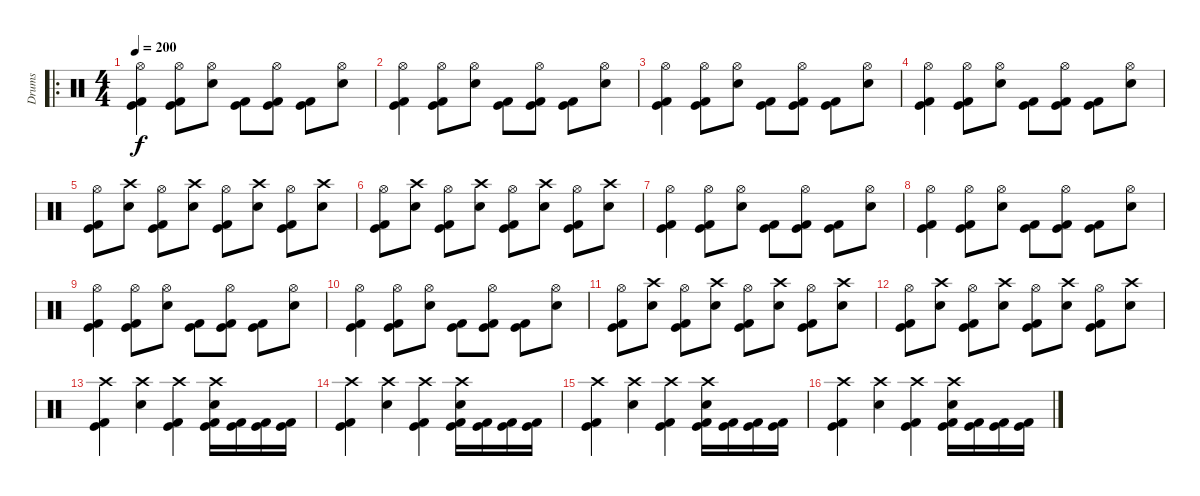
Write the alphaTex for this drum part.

\track ("Drums" "Drums") {instrument percussion}
\staff {score}
\articulation defaults
\ro
\ts (4 4)
\tempo 200
\clef neutral
\ks c
("Hi-Hat (open)" "Kick (hit) 2" "Kick (hit)").4{dy f} ("Hi-Hat (open)" "Kick (hit) 2" "Kick (hit)").8 ("Hi-Hat (open)" "Electric Snare (hit)").8 ("Kick (hit) 2" "Kick (hit)").8 ("Hi-Hat (open)" "Kick (hit) 2" "Kick (hit)").8 ("Kick (hit) 2" "Kick (hit)").8 ("Hi-Hat (open)" "Electric Snare (hit)").8 |
("Hi-Hat (open)" "Kick (hit) 2" "Kick (hit)").4 ("Hi-Hat (open)" "Kick (hit) 2" "Kick (hit)").8 ("Hi-Hat (open)" "Electric Snare (hit)").8 ("Kick (hit) 2" "Kick (hit)").8 ("Hi-Hat (open)" "Kick (hit) 2" "Kick (hit)").8 ("Kick (hit) 2" "Kick (hit)").8 ("Hi-Hat (open)" "Electric Snare (hit)").8 |
("Hi-Hat (open)" "Kick (hit) 2" "Kick (hit)").4 ("Hi-Hat (open)" "Kick (hit) 2" "Kick (hit)").8 ("Hi-Hat (open)" "Electric Snare (hit)").8 ("Kick (hit) 2" "Kick (hit)").8 ("Hi-Hat (open)" "Kick (hit) 2" "Kick (hit)").8 ("Kick (hit) 2" "Kick (hit)").8 ("Hi-Hat (open)" "Electric Snare (hit)").8 |
("Hi-Hat (open)" "Kick (hit) 2" "Kick (hit)").4 ("Hi-Hat (open)" "Kick (hit) 2" "Kick (hit)").8 ("Hi-Hat (open)" "Electric Snare (hit)").8 ("Kick (hit) 2" "Kick (hit)").8 ("Hi-Hat (open)" "Kick (hit) 2" "Kick (hit)").8 ("Kick (hit) 2" "Kick (hit)").8 ("Hi-Hat (open)" "Electric Snare (hit)").8 |
("Hi-Hat (open)" "Kick (hit)" "Kick (hit) 2").8 ("Electric Snare (hit)" "Crash high (hit)").8 ("Hi-Hat (open)" "Kick (hit)" "Kick (hit) 2").8 ("Electric Snare (hit)" "Crash high (hit)").8 ("Hi-Hat (open)" "Kick (hit)" "Kick (hit) 2").8 ("Electric Snare (hit)" "Crash high (hit)").8 ("Hi-Hat (open)" "Kick (hit)" "Kick (hit) 2").8 ("Electric Snare (hit)" "Crash high (hit)").8 |
("Hi-Hat (open)" "Kick (hit)" "Kick (hit) 2").8 ("Electric Snare (hit)" "Crash high (hit)").8 ("Hi-Hat (open)" "Kick (hit)" "Kick (hit) 2").8 ("Electric Snare (hit)" "Crash high (hit)").8 ("Hi-Hat (open)" "Kick (hit)" "Kick (hit) 2").8 ("Electric Snare (hit)" "Crash high (hit)").8 ("Hi-Hat (open)" "Kick (hit)" "Kick (hit) 2").8 ("Electric Snare (hit)" "Crash high (hit)").8 |
("Hi-Hat (open)" "Kick (hit) 2" "Kick (hit)").4 ("Hi-Hat (open)" "Kick (hit) 2" "Kick (hit)").8 ("Hi-Hat (open)" "Electric Snare (hit)").8 ("Kick (hit) 2" "Kick (hit)").8 ("Hi-Hat (open)" "Kick (hit) 2" "Kick (hit)").8 ("Kick (hit) 2" "Kick (hit)").8 ("Hi-Hat (open)" "Electric Snare (hit)").8 |
("Hi-Hat (open)" "Kick (hit) 2" "Kick (hit)").4 ("Hi-Hat (open)" "Kick (hit) 2" "Kick (hit)").8 ("Hi-Hat (open)" "Electric Snare (hit)").8 ("Kick (hit) 2" "Kick (hit)").8 ("Hi-Hat (open)" "Kick (hit) 2" "Kick (hit)").8 ("Kick (hit) 2" "Kick (hit)").8 ("Hi-Hat (open)" "Electric Snare (hit)").8 |
("Hi-Hat (open)" "Kick (hit) 2" "Kick (hit)").4 ("Hi-Hat (open)" "Kick (hit) 2" "Kick (hit)").8 ("Hi-Hat (open)" "Electric Snare (hit)").8 ("Kick (hit) 2" "Kick (hit)").8 ("Hi-Hat (open)" "Kick (hit) 2" "Kick (hit)").8 ("Kick (hit) 2" "Kick (hit)").8 ("Hi-Hat (open)" "Electric Snare (hit)").8 |
("Hi-Hat (open)" "Kick (hit) 2" "Kick (hit)").4 ("Hi-Hat (open)" "Kick (hit) 2" "Kick (hit)").8 ("Hi-Hat (open)" "Electric Snare (hit)").8 ("Kick (hit) 2" "Kick (hit)").8 ("Hi-Hat (open)" "Kick (hit) 2" "Kick (hit)").8 ("Kick (hit) 2" "Kick (hit)").8 ("Hi-Hat (open)" "Electric Snare (hit)").8 |
("Hi-Hat (open)" "Kick (hit)" "Kick (hit) 2").8 ("Electric Snare (hit)" "Crash high (hit)").8 ("Hi-Hat (open)" "Kick (hit)" "Kick (hit) 2").8 ("Electric Snare (hit)" "Crash high (hit)").8 ("Hi-Hat (open)" "Kick (hit)" "Kick (hit) 2").8 ("Electric Snare (hit)" "Crash high (hit)").8 ("Hi-Hat (open)" "Kick (hit)" "Kick (hit) 2").8 ("Electric Snare (hit)" "Crash high (hit)").8 |
("Hi-Hat (open)" "Kick (hit)" "Kick (hit) 2").8 ("Electric Snare (hit)" "Crash high (hit)").8 ("Hi-Hat (open)" "Kick (hit)" "Kick (hit) 2").8 ("Electric Snare (hit)" "Crash high (hit)").8 ("Hi-Hat (open)" "Kick (hit)" "Kick (hit) 2").8 ("Electric Snare (hit)" "Crash high (hit)").8 ("Hi-Hat (open)" "Kick (hit)" "Kick (hit) 2").8 ("Electric Snare (hit)" "Crash high (hit)").8 |
("Crash high (hit)" "Kick (hit) 2" "Kick (hit)").4 ("Crash high (hit)" "Electric Snare (hit)").4 ("Crash high (hit)" "Kick (hit) 2" "Kick (hit)").4 ("Crash high (hit)" "Kick (hit)" "Kick (hit) 2" "Electric Snare (hit)").16 ("Kick (hit)" "Kick (hit) 2").16 ("Kick (hit)" "Kick (hit) 2").16 ("Kick (hit)" "Kick (hit) 2").16 |
("Crash high (hit)" "Kick (hit) 2" "Kick (hit)").4 ("Crash high (hit)" "Electric Snare (hit)").4 ("Crash high (hit)" "Kick (hit) 2" "Kick (hit)").4 ("Crash high (hit)" "Kick (hit)" "Kick (hit) 2" "Electric Snare (hit)").16 ("Kick (hit)" "Kick (hit) 2").16 ("Kick (hit)" "Kick (hit) 2").16 ("Kick (hit)" "Kick (hit) 2").16 |
("Crash high (hit)" "Kick (hit) 2" "Kick (hit)").4 ("Crash high (hit)" "Electric Snare (hit)").4 ("Crash high (hit)" "Kick (hit) 2" "Kick (hit)").4 ("Crash high (hit)" "Kick (hit)" "Kick (hit) 2" "Electric Snare (hit)").16 ("Kick (hit)" "Kick (hit) 2").16 ("Kick (hit)" "Kick (hit) 2").16 ("Kick (hit)" "Kick (hit) 2").16 |
("Crash high (hit)" "Kick (hit) 2" "Kick (hit)").4 ("Crash high (hit)" "Electric Snare (hit)").4 ("Crash high (hit)" "Kick (hit) 2" "Kick (hit)").4 ("Crash high (hit)" "Kick (hit)" "Kick (hit) 2" "Electric Snare (hit)").16 ("Kick (hit)" "Kick (hit) 2").16 ("Kick (hit)" "Kick (hit) 2").16 ("Kick (hit)" "Kick (hit) 2").16
